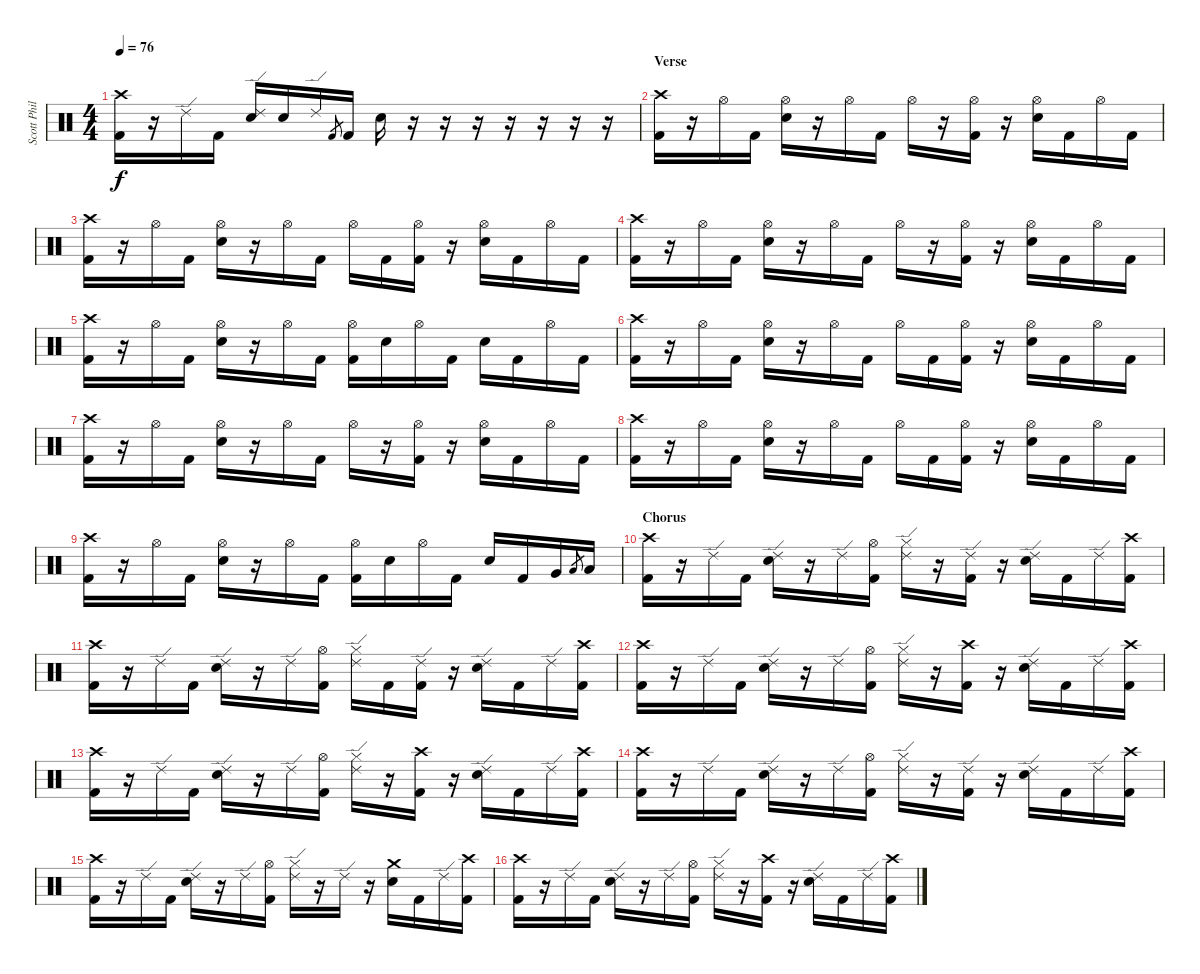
\track ("Scott Phillips - Drums" "Scott Phil") {instrument percussion}
\staff {score}
\articulation defaults
\ts (4 4)
\tempo 76
\clef neutral
\ks c
("Crash high (hit)" "Kick (hit) 2").16{dy f} r.16 "Ride (edge) 2".16 "Kick (hit) 2".16 ("Ride (edge) 2" "Snare (hit) 2").16 "Snare (hit) 2".16 "Ride (edge) 2".16 "Kick (hit) 2".8{gr} "Kick (hit) 2".16 "Snare (hit) 2".16 r.16 r.16 r.16 r.16 r.16 r.16 r.16 |
\section ("" "Verse")
("Crash high (hit)" "Kick (hit) 2").16 r.16 "Hi-Hat (open)".16 "Kick (hit) 2".16 ("Hi-Hat (open)" "Snare (hit) 2").16 r.16 "Hi-Hat (open)".16 "Kick (hit) 2".16 "Hi-Hat (open)".16 r.16 ("Hi-Hat (open)" "Kick (hit) 2").16 r.16 ("Hi-Hat (open)" "Snare (hit) 2").16 "Kick (hit) 2".16 "Hi-Hat (open)".16 "Kick (hit) 2".16 |
("Crash high (hit)" "Kick (hit) 2").16 r.16 "Hi-Hat (open)".16 "Kick (hit) 2".16 ("Hi-Hat (open)" "Snare (hit) 2").16 r.16 "Hi-Hat (open)".16 "Kick (hit) 2".16 "Hi-Hat (open)".16 "Kick (hit) 2".16 ("Hi-Hat (open)" "Kick (hit) 2").16 r.16 ("Hi-Hat (open)" "Snare (hit) 2").16 "Kick (hit) 2".16 "Hi-Hat (open)".16 "Kick (hit) 2".16 |
("Crash high (hit)" "Kick (hit) 2").16 r.16 "Hi-Hat (open)".16 "Kick (hit) 2".16 ("Hi-Hat (open)" "Snare (hit) 2").16 r.16 "Hi-Hat (open)".16 "Kick (hit) 2".16 "Hi-Hat (open)".16 r.16 ("Hi-Hat (open)" "Kick (hit) 2").16 r.16 ("Hi-Hat (open)" "Snare (hit) 2").16 "Kick (hit) 2".16 "Hi-Hat (open)".16 "Kick (hit) 2".16 |
("Crash high (hit)" "Kick (hit) 2").16 r.16 "Hi-Hat (open)".16 "Kick (hit) 2".16 ("Hi-Hat (open)" "Snare (hit) 2").16 r.16 "Hi-Hat (open)".16 "Kick (hit) 2".16 ("Hi-Hat (open)" "Kick (hit) 2").16 "Snare (hit) 2".16 "Hi-Hat (open)".16 "Kick (hit) 2".16 "Snare (hit) 2".16 "Kick (hit) 2".16 "Hi-Hat (open)".16 "Kick (hit) 2".16 |
("Crash high (hit)" "Kick (hit) 2").16 r.16 "Hi-Hat (open)".16 "Kick (hit) 2".16 ("Hi-Hat (open)" "Snare (hit) 2").16 r.16 "Hi-Hat (open)".16 "Kick (hit) 2".16 "Hi-Hat (open)".16 "Kick (hit) 2".16 ("Hi-Hat (open)" "Kick (hit) 2").16 r.16 ("Hi-Hat (open)" "Snare (hit) 2").16 "Kick (hit) 2".16 "Hi-Hat (open)".16 "Kick (hit) 2".16 |
("Crash high (hit)" "Kick (hit) 2").16 r.16 "Hi-Hat (open)".16 "Kick (hit) 2".16 ("Hi-Hat (open)" "Snare (hit) 2").16 r.16 "Hi-Hat (open)".16 "Kick (hit) 2".16 "Hi-Hat (open)".16 r.16 ("Hi-Hat (open)" "Kick (hit) 2").16 r.16 ("Hi-Hat (open)" "Snare (hit) 2").16 "Kick (hit) 2".16 "Hi-Hat (open)".16 "Kick (hit) 2".16 |
("Crash high (hit)" "Kick (hit) 2").16 r.16 "Hi-Hat (open)".16 "Kick (hit) 2".16 ("Hi-Hat (open)" "Snare (hit) 2").16 r.16 "Hi-Hat (open)".16 "Kick (hit) 2".16 "Hi-Hat (open)".16 "Kick (hit) 2".16 ("Hi-Hat (open)" "Kick (hit) 2").16 r.16 ("Hi-Hat (open)" "Snare (hit) 2").16 "Kick (hit) 2".16 "Hi-Hat (open)".16 "Kick (hit) 2".16 |
("Crash high (hit)" "Kick (hit) 2").16 r.16 "Hi-Hat (open)".16 "Kick (hit) 2".16 ("Hi-Hat (open)" "Snare (hit) 2").16 r.16 "Hi-Hat (open)".16 "Kick (hit) 2".16 ("Hi-Hat (open)" "Kick (hit) 2").16 "Snare (hit) 2".16 "Hi-Hat (open)".16 "Kick (hit) 2".16 "Snare (hit) 2".16 "Kick (hit) 2".16 "Very Low Tom (hit)".16 "Low Floor Tom (hit)".8{gr} "Low Floor Tom (hit)".16 |
\section ("" "Chorus")
("Crash high (hit)" "Kick (hit) 2").16 r.16 "Ride (edge) 2".16 "Kick (hit) 2".16 ("Ride (edge) 2" "Snare (hit) 2").16 r.16 "Ride (edge) 2".16 ("Hi-Hat (open)" "Kick (hit) 2").16 ("Ride (edge) 2" "Hi-Hat (closed)").16 r.16 ("Ride (edge) 2" "Kick (hit) 2").16 r.16 ("Ride (edge) 2" "Snare (hit) 2").16 "Kick (hit) 2".16 "Ride (edge) 2".16 ("Crash high (hit)" "Kick (hit) 2").16 |
("Crash high (hit)" "Kick (hit) 2").16 r.16 "Ride (edge) 2".16 "Kick (hit) 2".16 ("Ride (edge) 2" "Snare (hit) 2").16 r.16 "Ride (edge) 2".16 ("Hi-Hat (open)" "Kick (hit) 2").16 ("Ride (edge) 2" "Hi-Hat (closed)").16 "Kick (hit) 2".16 ("Ride (edge) 2" "Kick (hit) 2").16 r.16 ("Ride (edge) 2" "Snare (hit) 2").16 "Kick (hit) 2".16 "Ride (edge) 2".16 ("Crash high (hit)" "Kick (hit) 2").16 |
("Crash high (hit)" "Kick (hit) 2").16 r.16 "Ride (edge) 2".16 "Kick (hit) 2".16 ("Ride (edge) 2" "Snare (hit) 2").16 r.16 "Ride (edge) 2".16 ("Hi-Hat (open)" "Kick (hit) 2").16 ("Ride (edge) 2" "Hi-Hat (closed)").16 r.16 ("Crash high (hit)" "Kick (hit) 2").16 r.16 ("Ride (edge) 2" "Snare (hit) 2").16 "Kick (hit) 2".16 "Ride (edge) 2".16 ("Crash high (hit)" "Kick (hit) 2").16 |
("Crash high (hit)" "Kick (hit) 2").16 r.16 "Ride (edge) 2".16 "Kick (hit) 2".16 ("Ride (edge) 2" "Snare (hit) 2").16 r.16 "Ride (edge) 2".16 ("Hi-Hat (open)" "Kick (hit) 2").16 ("Ride (edge) 2" "Hi-Hat (closed)").16 r.16 ("Crash high (hit)" "Kick (hit) 2").16 r.16 ("Ride (edge) 2" "Snare (hit) 2").16 "Kick (hit) 2".16 "Ride (edge) 2".16 ("Crash high (hit)" "Kick (hit) 2").16 |
("Crash high (hit)" "Kick (hit) 2").16 r.16 "Ride (edge) 2".16 "Kick (hit) 2".16 ("Ride (edge) 2" "Snare (hit) 2").16 r.16 "Ride (edge) 2".16 ("Hi-Hat (open)" "Kick (hit) 2").16 ("Ride (edge) 2" "Hi-Hat (closed)").16 r.16 ("Ride (edge) 2" "Kick (hit) 2").16 r.16 ("Ride (edge) 2" "Snare (hit) 2").16 "Kick (hit) 2".16 "Ride (edge) 2".16 ("Crash high (hit)" "Kick (hit) 2").16 |
("Crash high (hit)" "Kick (hit) 2").16 r.16 "Ride (edge) 2".16 "Kick (hit) 2".16 ("Ride (edge) 2" "Snare (hit) 2").16 r.16 "Ride (edge) 2".16 ("Hi-Hat (open)" "Kick (hit) 2").16 ("Ride (edge) 2" "Hi-Hat (closed)").16 r.16 "Ride (edge) 2".16 r.16 ("Crash medium (hit)" "Snare (hit) 2").16 "Kick (hit) 2".16 "Ride (edge) 2".16 ("Crash high (hit)" "Kick (hit) 2").16 |
("Crash high (hit)" "Kick (hit) 2").16 r.16 "Ride (edge) 2".16 "Kick (hit) 2".16 ("Ride (edge) 2" "Snare (hit) 2").16 r.16 "Ride (edge) 2".16 ("Hi-Hat (open)" "Kick (hit) 2").16 ("Ride (edge) 2" "Hi-Hat (closed)").16 r.16 ("Crash high (hit)" "Kick (hit) 2").16 r.16 ("Ride (edge) 2" "Snare (hit) 2").16 "Kick (hit) 2".16 "Ride (edge) 2".16 ("Crash high (hit)" "Kick (hit) 2").16
